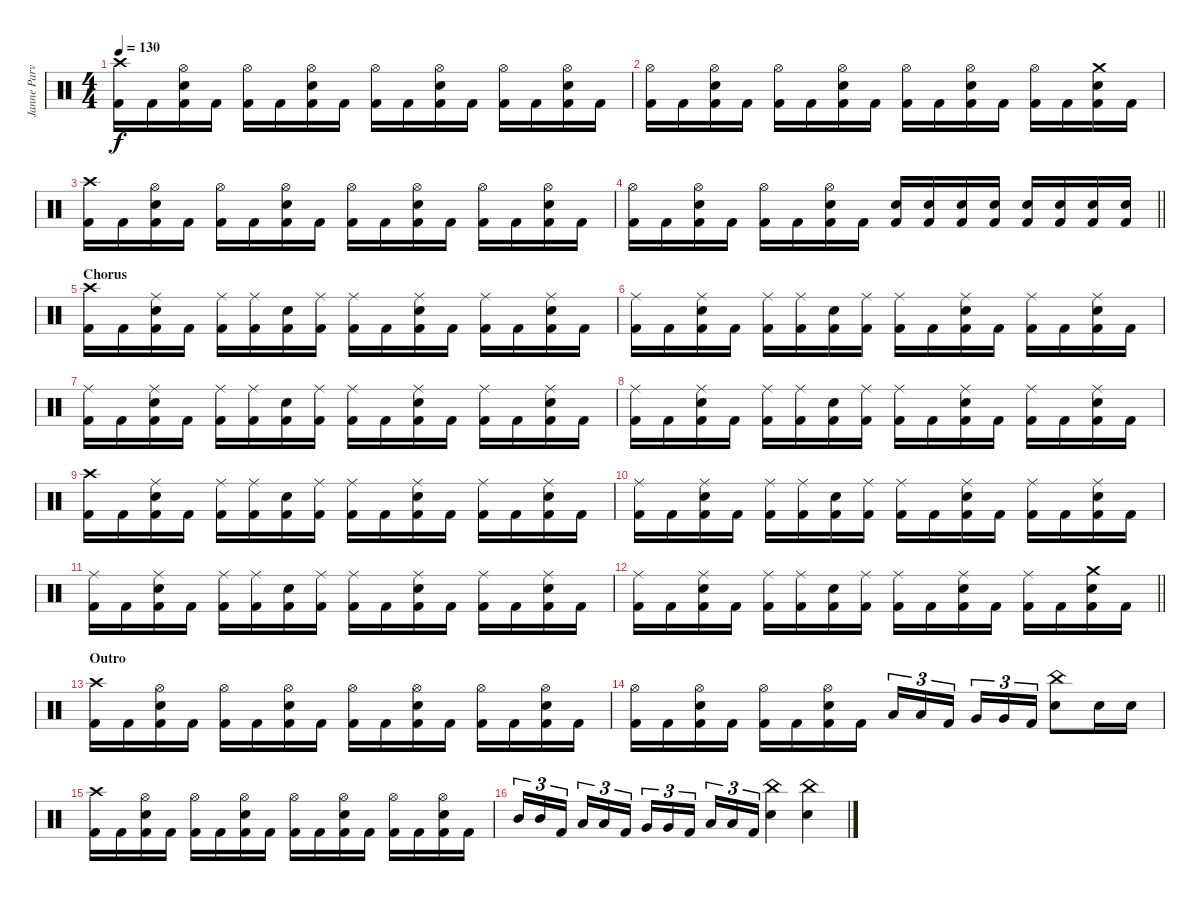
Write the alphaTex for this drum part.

\track ("Janne Parviainen" "Janne Parv") {instrument percussion}
\staff {score}
\articulation defaults
\ts (4 4)
\tempo 130
\clef neutral
\ks c
("Crash high (hit)" "Kick (hit) 2").16{dy f} "Kick (hit) 2".16 ("Hi-Hat (open)" "Electric Snare (hit)" "Kick (hit) 2").16 "Kick (hit) 2".16 ("Hi-Hat (open)" "Kick (hit) 2").16 "Kick (hit) 2".16 ("Hi-Hat (open)" "Electric Snare (hit)" "Kick (hit) 2").16 "Kick (hit) 2".16 ("Hi-Hat (open)" "Kick (hit) 2").16 "Kick (hit) 2".16 ("Hi-Hat (open)" "Electric Snare (hit)" "Kick (hit) 2").16 "Kick (hit) 2".16 ("Hi-Hat (open)" "Kick (hit) 2").16 "Kick (hit) 2".16 ("Hi-Hat (open)" "Electric Snare (hit)" "Kick (hit) 2").16 "Kick (hit) 2".16 |
("Hi-Hat (open)" "Kick (hit) 2").16 "Kick (hit) 2".16 ("Hi-Hat (open)" "Electric Snare (hit)" "Kick (hit) 2").16 "Kick (hit) 2".16 ("Hi-Hat (open)" "Kick (hit) 2").16 "Kick (hit) 2".16 ("Hi-Hat (open)" "Electric Snare (hit)" "Kick (hit) 2").16 "Kick (hit) 2".16 ("Hi-Hat (open)" "Kick (hit) 2").16 "Kick (hit) 2".16 ("Hi-Hat (open)" "Electric Snare (hit)" "Kick (hit) 2").16 "Kick (hit) 2".16 ("Hi-Hat (open)" "Kick (hit) 2").16 "Kick (hit) 2".16 ("Crash medium (hit)" "Electric Snare (hit)" "Kick (hit) 2").16 "Kick (hit) 2".16 |
("Crash high (hit)" "Kick (hit) 2").16 "Kick (hit) 2".16 ("Hi-Hat (open)" "Electric Snare (hit)" "Kick (hit) 2").16 "Kick (hit) 2".16 ("Hi-Hat (open)" "Kick (hit) 2").16 "Kick (hit) 2".16 ("Hi-Hat (open)" "Electric Snare (hit)" "Kick (hit) 2").16 "Kick (hit) 2".16 ("Hi-Hat (open)" "Kick (hit) 2").16 "Kick (hit) 2".16 ("Hi-Hat (open)" "Electric Snare (hit)" "Kick (hit) 2").16 "Kick (hit) 2".16 ("Hi-Hat (open)" "Kick (hit) 2").16 "Kick (hit) 2".16 ("Hi-Hat (open)" "Electric Snare (hit)" "Kick (hit) 2").16 "Kick (hit) 2".16 |
\barLineRight lightlight
("Hi-Hat (open)" "Kick (hit) 2").16 "Kick (hit) 2".16 ("Hi-Hat (open)" "Electric Snare (hit)" "Kick (hit) 2").16 "Kick (hit) 2".16 ("Hi-Hat (open)" "Kick (hit) 2").16 "Kick (hit) 2".16 ("Hi-Hat (open)" "Electric Snare (hit)" "Kick (hit) 2").16 "Kick (hit) 2".16 ("Electric Snare (hit)" "Kick (hit) 2").16 ("Electric Snare (hit)" "Kick (hit) 2").16 ("Electric Snare (hit)" "Kick (hit) 2").16 ("Electric Snare (hit)" "Kick (hit) 2").16 ("Electric Snare (hit)" "Kick (hit) 2").16 ("Electric Snare (hit)" "Kick (hit) 2").16 ("Electric Snare (hit)" "Kick (hit) 2").16 ("Electric Snare (hit)" "Kick (hit) 2").16 |
\section ("" "Chorus")
("Crash high (hit)" "Kick (hit) 2").16 "Kick (hit) 2".16 ("Ride (middle)" "Electric Snare (hit)" "Kick (hit) 2").16 "Kick (hit) 2".16 ("Ride (middle)" "Kick (hit) 2").16 ("Ride (middle)" "Kick (hit) 2").16 ("Electric Snare (hit)" "Kick (hit) 2").16 ("Ride (middle)" "Kick (hit) 2").16 ("Ride (middle)" "Kick (hit) 2").16 "Kick (hit) 2".16 ("Ride (middle)" "Electric Snare (hit)" "Kick (hit) 2").16 "Kick (hit) 2".16 ("Ride (middle)" "Kick (hit) 2").16 "Kick (hit) 2".16 ("Ride (middle)" "Electric Snare (hit)" "Kick (hit) 2").16 "Kick (hit) 2".16 |
("Ride (middle)" "Kick (hit) 2").16 "Kick (hit) 2".16 ("Ride (middle)" "Electric Snare (hit)" "Kick (hit) 2").16 "Kick (hit) 2".16 ("Ride (middle)" "Kick (hit) 2").16 ("Ride (middle)" "Kick (hit) 2").16 ("Electric Snare (hit)" "Kick (hit) 2").16 ("Ride (middle)" "Kick (hit) 2").16 ("Ride (middle)" "Kick (hit) 2").16 "Kick (hit) 2".16 ("Ride (middle)" "Electric Snare (hit)" "Kick (hit) 2").16 "Kick (hit) 2".16 ("Ride (middle)" "Kick (hit) 2").16 "Kick (hit) 2".16 ("Ride (middle)" "Electric Snare (hit)" "Kick (hit) 2").16 "Kick (hit) 2".16 |
("Ride (middle)" "Kick (hit) 2").16 "Kick (hit) 2".16 ("Ride (middle)" "Electric Snare (hit)" "Kick (hit) 2").16 "Kick (hit) 2".16 ("Ride (middle)" "Kick (hit) 2").16 ("Ride (middle)" "Kick (hit) 2").16 ("Electric Snare (hit)" "Kick (hit) 2").16 ("Ride (middle)" "Kick (hit) 2").16 ("Ride (middle)" "Kick (hit) 2").16 "Kick (hit) 2".16 ("Ride (middle)" "Electric Snare (hit)" "Kick (hit) 2").16 "Kick (hit) 2".16 ("Ride (middle)" "Kick (hit) 2").16 "Kick (hit) 2".16 ("Ride (middle)" "Electric Snare (hit)" "Kick (hit) 2").16 "Kick (hit) 2".16 |
("Ride (middle)" "Kick (hit) 2").16 "Kick (hit) 2".16 ("Ride (middle)" "Electric Snare (hit)" "Kick (hit) 2").16 "Kick (hit) 2".16 ("Ride (middle)" "Kick (hit) 2").16 ("Ride (middle)" "Kick (hit) 2").16 ("Electric Snare (hit)" "Kick (hit) 2").16 ("Ride (middle)" "Kick (hit) 2").16 ("Ride (middle)" "Kick (hit) 2").16 "Kick (hit) 2".16 ("Ride (middle)" "Electric Snare (hit)" "Kick (hit) 2").16 "Kick (hit) 2".16 ("Ride (middle)" "Kick (hit) 2").16 "Kick (hit) 2".16 ("Ride (middle)" "Electric Snare (hit)" "Kick (hit) 2").16 "Kick (hit) 2".16 |
("Crash high (hit)" "Kick (hit) 2").16 "Kick (hit) 2".16 ("Ride (middle)" "Electric Snare (hit)" "Kick (hit) 2").16 "Kick (hit) 2".16 ("Ride (middle)" "Kick (hit) 2").16 ("Ride (middle)" "Kick (hit) 2").16 ("Electric Snare (hit)" "Kick (hit) 2").16 ("Ride (middle)" "Kick (hit) 2").16 ("Ride (middle)" "Kick (hit) 2").16 "Kick (hit) 2".16 ("Ride (middle)" "Electric Snare (hit)" "Kick (hit) 2").16 "Kick (hit) 2".16 ("Ride (middle)" "Kick (hit) 2").16 "Kick (hit) 2".16 ("Ride (middle)" "Electric Snare (hit)" "Kick (hit) 2").16 "Kick (hit) 2".16 |
("Ride (middle)" "Kick (hit) 2").16 "Kick (hit) 2".16 ("Ride (middle)" "Electric Snare (hit)" "Kick (hit) 2").16 "Kick (hit) 2".16 ("Ride (middle)" "Kick (hit) 2").16 ("Ride (middle)" "Kick (hit) 2").16 ("Electric Snare (hit)" "Kick (hit) 2").16 ("Ride (middle)" "Kick (hit) 2").16 ("Ride (middle)" "Kick (hit) 2").16 "Kick (hit) 2".16 ("Ride (middle)" "Electric Snare (hit)" "Kick (hit) 2").16 "Kick (hit) 2".16 ("Ride (middle)" "Kick (hit) 2").16 "Kick (hit) 2".16 ("Ride (middle)" "Electric Snare (hit)" "Kick (hit) 2").16 "Kick (hit) 2".16 |
("Ride (middle)" "Kick (hit) 2").16 "Kick (hit) 2".16 ("Ride (middle)" "Electric Snare (hit)" "Kick (hit) 2").16 "Kick (hit) 2".16 ("Ride (middle)" "Kick (hit) 2").16 ("Ride (middle)" "Kick (hit) 2").16 ("Electric Snare (hit)" "Kick (hit) 2").16 ("Ride (middle)" "Kick (hit) 2").16 ("Ride (middle)" "Kick (hit) 2").16 "Kick (hit) 2".16 ("Ride (middle)" "Electric Snare (hit)" "Kick (hit) 2").16 "Kick (hit) 2".16 ("Ride (middle)" "Kick (hit) 2").16 "Kick (hit) 2".16 ("Ride (middle)" "Electric Snare (hit)" "Kick (hit) 2").16 "Kick (hit) 2".16 |
\barLineRight lightlight
("Ride (middle)" "Kick (hit) 2").16 "Kick (hit) 2".16 ("Ride (middle)" "Electric Snare (hit)" "Kick (hit) 2").16 "Kick (hit) 2".16 ("Ride (middle)" "Kick (hit) 2").16 ("Ride (middle)" "Kick (hit) 2").16 ("Electric Snare (hit)" "Kick (hit) 2").16 ("Ride (middle)" "Kick (hit) 2").16 ("Ride (middle)" "Kick (hit) 2").16 "Kick (hit) 2".16 ("Ride (middle)" "Electric Snare (hit)" "Kick (hit) 2").16 "Kick (hit) 2".16 ("Ride (middle)" "Kick (hit) 2").16 "Kick (hit) 2".16 ("Crash medium (hit)" "Electric Snare (hit)" "Kick (hit) 2").16 "Kick (hit) 2".16 |
\section ("" "Outro")
("Crash high (hit)" "Kick (hit) 2").16 "Kick (hit) 2".16 ("Hi-Hat (open)" "Electric Snare (hit)" "Kick (hit) 2").16 "Kick (hit) 2".16 ("Hi-Hat (open)" "Kick (hit) 2").16 "Kick (hit) 2".16 ("Hi-Hat (open)" "Electric Snare (hit)" "Kick (hit) 2").16 "Kick (hit) 2".16 ("Hi-Hat (open)" "Kick (hit) 2").16 "Kick (hit) 2".16 ("Hi-Hat (open)" "Electric Snare (hit)" "Kick (hit) 2").16 "Kick (hit) 2".16 ("Hi-Hat (open)" "Kick (hit) 2").16 "Kick (hit) 2".16 ("Hi-Hat (open)" "Electric Snare (hit)" "Kick (hit) 2").16 "Kick (hit) 2".16 |
("Hi-Hat (open)" "Kick (hit) 2").16 "Kick (hit) 2".16 ("Hi-Hat (open)" "Electric Snare (hit)" "Kick (hit) 2").16 "Kick (hit) 2".16 ("Hi-Hat (open)" "Kick (hit) 2").16 "Kick (hit) 2".16 ("Hi-Hat (open)" "Electric Snare (hit)" "Kick (hit) 2").16 "Kick (hit) 2".16 "Low Tom (hit)".16{tu (3 2)} "Low Tom (hit)".16{tu (3 2)} "Kick (hit) 2".16{tu (3 2)} "Very Low Tom (hit)".16{tu (3 2)} "Very Low Tom (hit)".16{tu (3 2)} "Kick (hit) 2".16{tu (3 2)} ("China (hit)" "Electric Snare (hit)").8 "Electric Snare (hit)".16 "Electric Snare (hit)".16 |
("Crash high (hit)" "Kick (hit) 2").16 "Kick (hit) 2".16 ("Hi-Hat (open)" "Electric Snare (hit)" "Kick (hit) 2").16 "Kick (hit) 2".16 ("Hi-Hat (open)" "Kick (hit) 2").16 "Kick (hit) 2".16 ("Hi-Hat (open)" "Electric Snare (hit)" "Kick (hit) 2").16 "Kick (hit) 2".16 ("Hi-Hat (open)" "Kick (hit) 2").16 "Kick (hit) 2".16 ("Hi-Hat (open)" "Electric Snare (hit)" "Kick (hit) 2").16 "Kick (hit) 2".16 ("Hi-Hat (open)" "Kick (hit) 2").16 "Kick (hit) 2".16 ("Hi-Hat (open)" "Electric Snare (hit)" "Kick (hit) 2").16 "Kick (hit) 2".16 |
"Mid Tom (hit)".16{tu (3 2)} "Mid Tom (hit)".16{tu (3 2)} "Kick (hit) 2".16{tu (3 2)} "Low Tom (hit)".16{tu (3 2)} "Low Tom (hit)".16{tu (3 2)} "Kick (hit) 2".16{tu (3 2)} "Very Low Tom (hit)".16{tu (3 2)} "Very Low Tom (hit)".16{tu (3 2)} "Kick (hit) 2".16{tu (3 2)} "Low Floor Tom (hit)".16{tu (3 2)} "Low Floor Tom (hit)".16{tu (3 2)} "Kick (hit) 2".16{tu (3 2)} ("China (hit)" "Electric Snare (hit)").4 ("China (hit)" "Electric Snare (hit)").4
